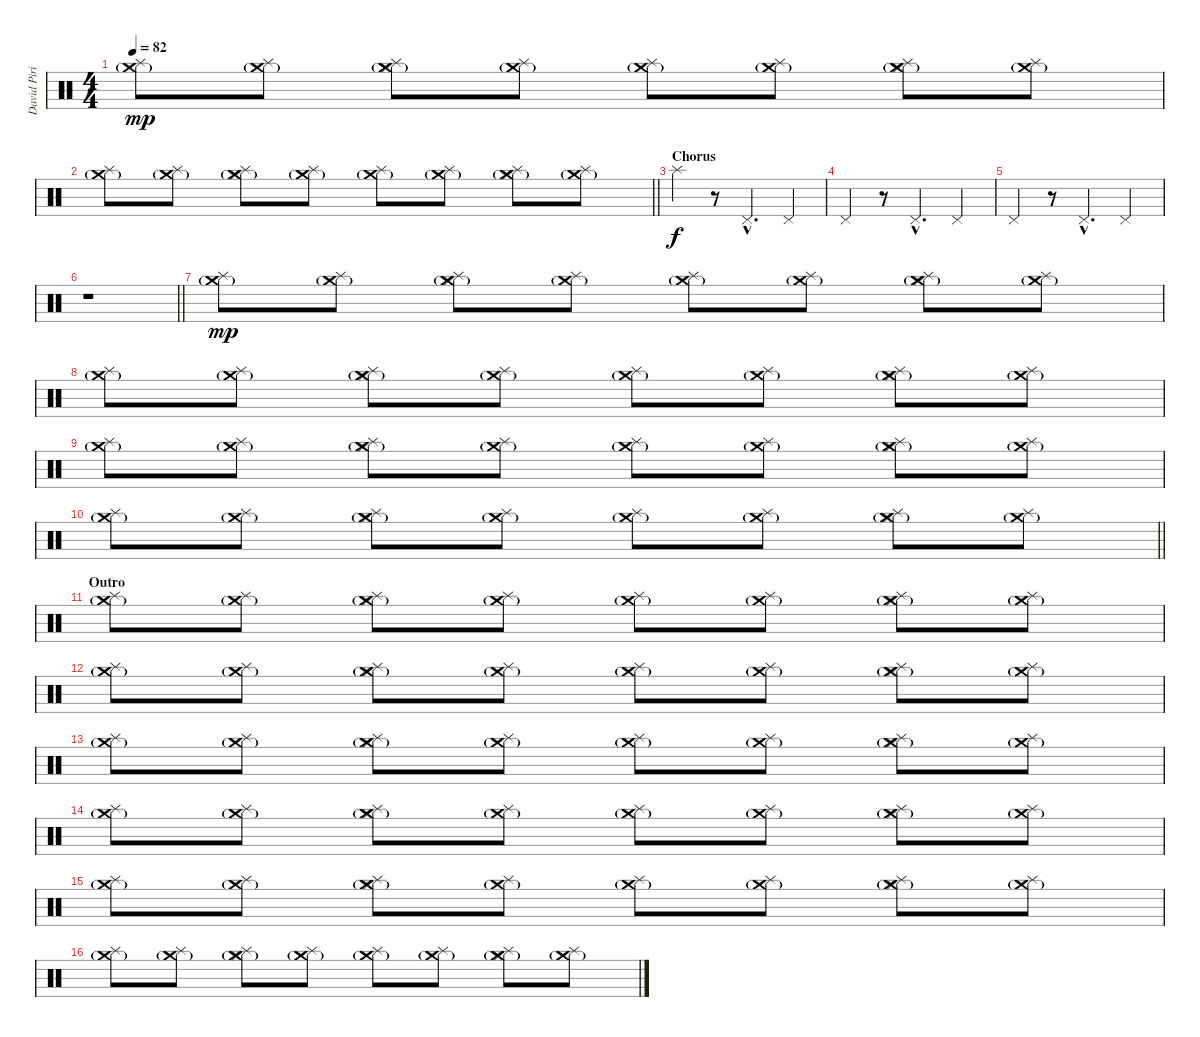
\track ("David Piribauer (Drums)" "David Piri") {instrument percussion}
\staff {score}
\articulation defaults
\ts (4 4)
\tempo 82
\clef neutral
\ks c
("Crash medium (hit)"{g} "Splash (hit)").8{dy mp} ("Crash medium (hit)"{g} "Splash (hit)").8 ("Crash medium (hit)"{g} "Splash (hit)" "Hi-Hat (closed)").8 ("Crash medium (hit)"{g} "Splash (hit)").8 ("Crash medium (hit)"{g} "Splash (hit)").8 ("Crash medium (hit)"{g} "Splash (hit)").8 ("Crash medium (hit)"{g} "Splash (hit)" "Hi-Hat (closed)").8 ("Crash medium (hit)"{g} "Splash (hit)").8 |
\barLineRight lightlight
("Crash medium (hit)"{g} "Splash (hit)").8 ("Crash medium (hit)"{g} "Splash (hit)").8 ("Crash medium (hit)"{g} "Splash (hit)" "Hi-Hat (closed)").8 ("Crash medium (hit)"{g} "Splash (hit)").8 ("Crash medium (hit)"{g} "Splash (hit)").8 ("Crash medium (hit)"{g} "Splash (hit)").8 ("Crash medium (hit)"{g} "Splash (hit)" "Hi-Hat (closed)").8 ("Crash medium (hit)"{g} "Splash (hit)").8 |
\section ("" "Chorus")
"Splash (hit)".4{dy f} r.8 "Pedal Hi-Hat (hit)"{hac}.4{d} "Pedal Hi-Hat (hit)".4 |
"Pedal Hi-Hat (hit)".4 r.8 "Pedal Hi-Hat (hit)"{hac}.4{d} "Pedal Hi-Hat (hit)".4 |
"Pedal Hi-Hat (hit)".4 r.8 "Pedal Hi-Hat (hit)"{hac}.4{d} "Pedal Hi-Hat (hit)".4 |
\barLineRight lightlight
r.1 |
("Crash medium (hit)"{g} "Splash (hit)").8{dy mp} ("Crash medium (hit)"{g} "Splash (hit)").8 ("Crash medium (hit)"{g} "Splash (hit)" "Hi-Hat (closed)").8 ("Crash medium (hit)"{g} "Splash (hit)").8 ("Crash medium (hit)"{g} "Splash (hit)").8 ("Crash medium (hit)"{g} "Splash (hit)").8 ("Crash medium (hit)"{g} "Splash (hit)" "Hi-Hat (closed)").8 ("Crash medium (hit)"{g} "Splash (hit)").8 |
("Crash medium (hit)"{g} "Splash (hit)").8 ("Crash medium (hit)"{g} "Splash (hit)").8 ("Crash medium (hit)"{g} "Splash (hit)" "Hi-Hat (closed)").8 ("Crash medium (hit)"{g} "Splash (hit)").8 ("Crash medium (hit)"{g} "Splash (hit)").8 ("Crash medium (hit)"{g} "Splash (hit)").8 ("Crash medium (hit)"{g} "Splash (hit)" "Hi-Hat (closed)").8 ("Crash medium (hit)"{g} "Splash (hit)").8 |
("Crash medium (hit)"{g} "Splash (hit)").8 ("Crash medium (hit)"{g} "Splash (hit)").8 ("Crash medium (hit)"{g} "Splash (hit)" "Hi-Hat (closed)").8 ("Crash medium (hit)"{g} "Splash (hit)").8 ("Crash medium (hit)"{g} "Splash (hit)").8 ("Crash medium (hit)"{g} "Splash (hit)").8 ("Crash medium (hit)"{g} "Splash (hit)" "Hi-Hat (closed)").8 ("Crash medium (hit)"{g} "Splash (hit)").8 |
\barLineRight lightlight
("Crash medium (hit)"{g} "Splash (hit)").8 ("Crash medium (hit)"{g} "Splash (hit)").8 ("Crash medium (hit)"{g} "Splash (hit)" "Hi-Hat (closed)").8 ("Crash medium (hit)"{g} "Splash (hit)").8 ("Crash medium (hit)"{g} "Splash (hit)").8 ("Crash medium (hit)"{g} "Splash (hit)").8 ("Crash medium (hit)"{g} "Splash (hit)" "Hi-Hat (closed)").8 ("Crash medium (hit)"{g} "Splash (hit)").8 |
\section ("" "Outro")
("Crash medium (hit)"{g} "Splash (hit)").8 ("Crash medium (hit)"{g} "Splash (hit)").8 ("Crash medium (hit)"{g} "Splash (hit)" "Hi-Hat (closed)").8 ("Crash medium (hit)"{g} "Splash (hit)").8 ("Crash medium (hit)"{g} "Splash (hit)").8 ("Crash medium (hit)"{g} "Splash (hit)").8 ("Crash medium (hit)"{g} "Splash (hit)" "Hi-Hat (closed)").8 ("Crash medium (hit)"{g} "Splash (hit)").8 |
("Crash medium (hit)"{g} "Splash (hit)").8 ("Crash medium (hit)"{g} "Splash (hit)").8 ("Crash medium (hit)"{g} "Splash (hit)" "Hi-Hat (closed)").8 ("Crash medium (hit)"{g} "Splash (hit)").8 ("Crash medium (hit)"{g} "Splash (hit)").8 ("Crash medium (hit)"{g} "Splash (hit)").8 ("Crash medium (hit)"{g} "Splash (hit)" "Hi-Hat (closed)").8 ("Crash medium (hit)"{g} "Splash (hit)").8 |
("Crash medium (hit)"{g} "Splash (hit)").8 ("Crash medium (hit)"{g} "Splash (hit)").8 ("Crash medium (hit)"{g} "Splash (hit)" "Hi-Hat (closed)").8 ("Crash medium (hit)"{g} "Splash (hit)").8 ("Crash medium (hit)"{g} "Splash (hit)").8 ("Crash medium (hit)"{g} "Splash (hit)").8 ("Crash medium (hit)"{g} "Splash (hit)" "Hi-Hat (closed)").8 ("Crash medium (hit)"{g} "Splash (hit)").8 |
("Crash medium (hit)"{g} "Splash (hit)").8 ("Crash medium (hit)"{g} "Splash (hit)").8 ("Crash medium (hit)"{g} "Splash (hit)" "Hi-Hat (closed)").8 ("Crash medium (hit)"{g} "Splash (hit)").8 ("Crash medium (hit)"{g} "Splash (hit)").8 ("Crash medium (hit)"{g} "Splash (hit)").8 ("Crash medium (hit)"{g} "Splash (hit)" "Hi-Hat (closed)").8 ("Crash medium (hit)"{g} "Splash (hit)").8 |
("Crash medium (hit)"{g} "Splash (hit)").8 ("Crash medium (hit)"{g} "Splash (hit)").8 ("Crash medium (hit)"{g} "Splash (hit)" "Hi-Hat (closed)").8 ("Crash medium (hit)"{g} "Splash (hit)").8 ("Crash medium (hit)"{g} "Splash (hit)").8 ("Crash medium (hit)"{g} "Splash (hit)").8 ("Crash medium (hit)"{g} "Splash (hit)" "Hi-Hat (closed)").8 ("Crash medium (hit)"{g} "Splash (hit)").8 |
("Crash medium (hit)"{g} "Splash (hit)").8 ("Crash medium (hit)"{g} "Splash (hit)").8 ("Crash medium (hit)"{g} "Splash (hit)" "Hi-Hat (closed)").8 ("Crash medium (hit)"{g} "Splash (hit)").8 ("Crash medium (hit)"{g} "Splash (hit)").8 ("Crash medium (hit)"{g} "Splash (hit)").8 ("Crash medium (hit)"{g} "Splash (hit)" "Hi-Hat (closed)").8 ("Crash medium (hit)"{g} "Splash (hit)").8
